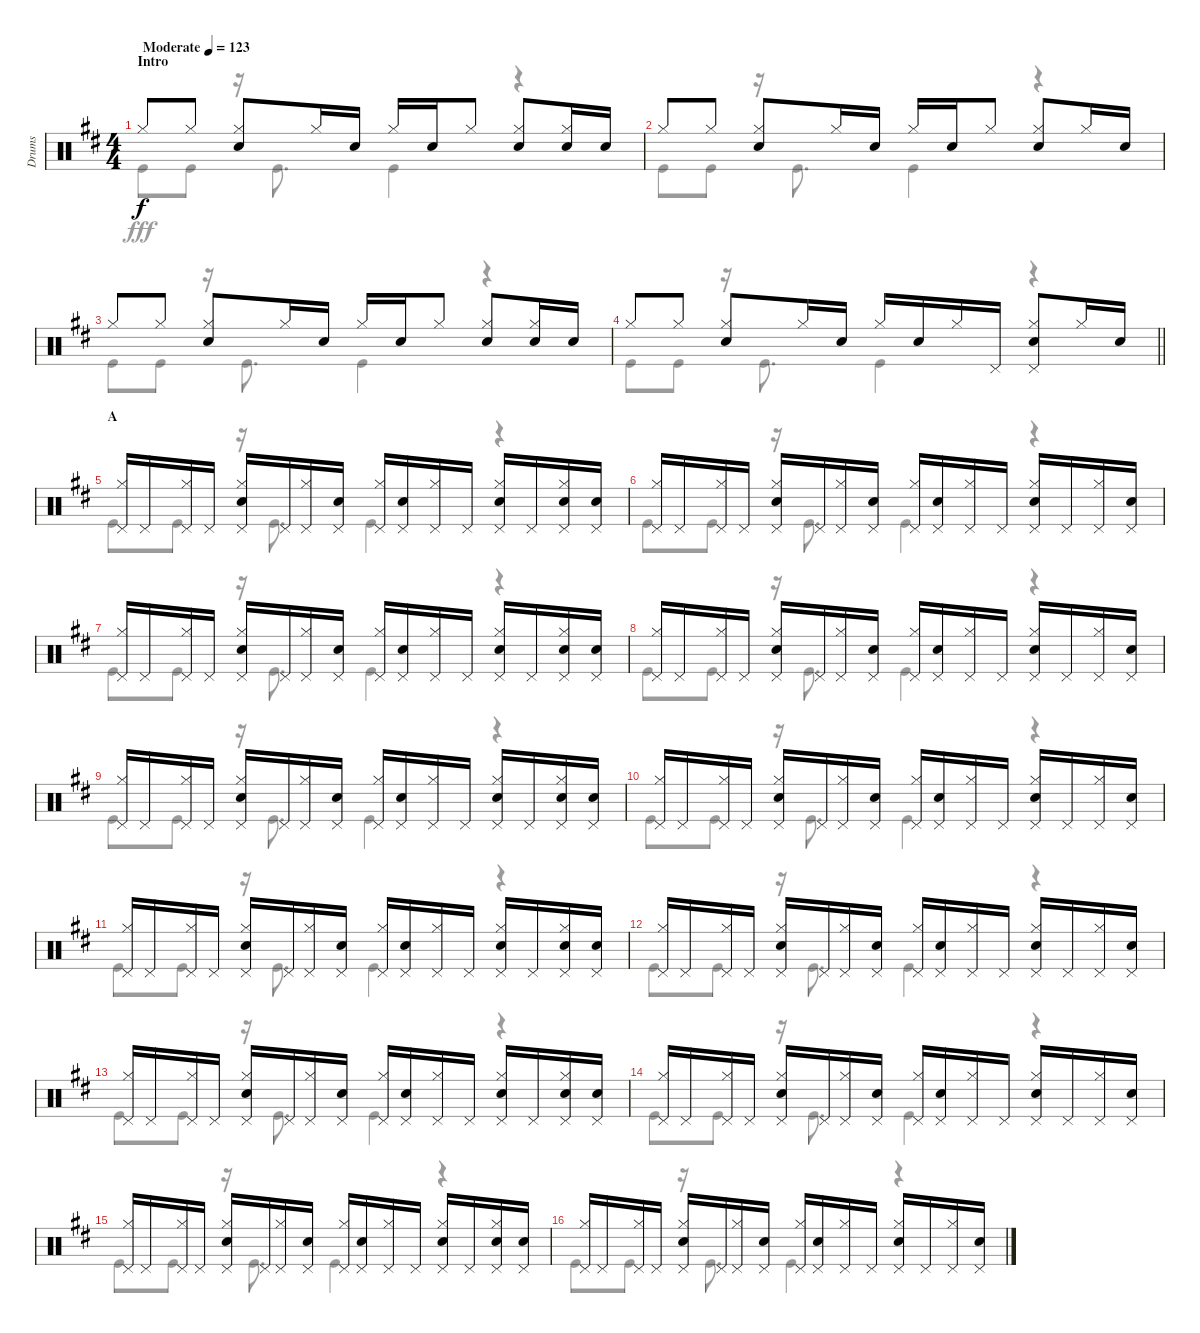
\track ("Drums" "Drums") {instrument percussion}
\staff {score}
\articulation defaults
\voice
\ts (4 4)
\section ("" "Intro")
\tempo (123 "Moderate")
\clef neutral
\ks d "Hi-Hat (closed)".8{dy f} "Hi-Hat (closed)".8
("Hi-Hat (closed)" "Snare (hit) 2").8 "Hi-Hat (closed)".16 "Snare (hit) 2".16 "Hi-Hat (closed)".16 "Snare (hit) 2".16 "Hi-Hat (closed)".8 ("Hi-Hat (closed)" "Snare (hit) 2").8 ("Hi-Hat (closed)" "Snare (hit) 2").16 "Snare (hit) 2".16 |
"Hi-Hat (closed)".8 "Hi-Hat (closed)".8 ("Hi-Hat (closed)" "Snare (hit) 2").8 "Hi-Hat (closed)".16 "Snare (hit) 2".16 "Hi-Hat (closed)".16 "Snare (hit) 2".16 "Hi-Hat (closed)".8 ("Hi-Hat (closed)" "Snare (hit) 2").8 "Hi-Hat (closed)".16 "Snare (hit) 2".16 |
"Hi-Hat (closed)".8 "Hi-Hat (closed)".8 ("Hi-Hat (closed)" "Snare (hit) 2").8 "Hi-Hat (closed)".16 "Snare (hit) 2".16 "Hi-Hat (closed)".16 "Snare (hit) 2".16 "Hi-Hat (closed)".8 ("Hi-Hat (closed)" "Snare (hit) 2").8 ("Hi-Hat (closed)" "Snare (hit) 2").16 "Snare (hit) 2".16 |
\barLineRight lightlight "Hi-Hat (closed)".8 "Hi-Hat (closed)".8
("Hi-Hat (closed)" "Snare (hit) 2").8 "Hi-Hat (closed)".16 "Snare (hit) 2".16 "Hi-Hat (closed)".16 "Snare (hit) 2".16 "Hi-Hat (closed)".16 "Pedal Hi-Hat (hit)".16 ("Hi-Hat (closed)" "Snare (hit) 2" "Pedal Hi-Hat (hit)").8 "Hi-Hat (closed)".16 "Snare (hit) 2".16 |
\section ("" "A")
("Hi-Hat (closed)" "Pedal Hi-Hat (hit)").16 "Pedal Hi-Hat (hit)".16 ("Hi-Hat (closed)" "Pedal Hi-Hat (hit)").16 "Pedal Hi-Hat (hit)".16 ("Hi-Hat (closed)" "Snare (hit) 2" "Pedal Hi-Hat (hit)").16 "Pedal Hi-Hat (hit)".16 ("Hi-Hat (closed)" "Pedal Hi-Hat (hit)").16 ("Pedal Hi-Hat (hit)" "Snare (hit) 2").16 ("Hi-Hat (closed)" "Pedal Hi-Hat (hit)").16 ("Pedal Hi-Hat (hit)" "Snare (hit) 2").16 ("Hi-Hat (closed)" "Pedal Hi-Hat (hit)").16 "Pedal Hi-Hat (hit)".16 ("Hi-Hat (closed)" "Snare (hit) 2" "Pedal Hi-Hat (hit)").16 "Pedal Hi-Hat (hit)".16 ("Hi-Hat (closed)" "Snare (hit) 2" "Pedal Hi-Hat (hit)").16 ("Pedal Hi-Hat (hit)" "Snare (hit) 2").16 |
("Hi-Hat (closed)" "Pedal Hi-Hat (hit)").16 "Pedal Hi-Hat (hit)".16 ("Hi-Hat (closed)" "Pedal Hi-Hat (hit)").16 "Pedal Hi-Hat (hit)".16 ("Hi-Hat (closed)" "Snare (hit) 2" "Pedal Hi-Hat (hit)").16 "Pedal Hi-Hat (hit)".16 ("Hi-Hat (closed)" "Pedal Hi-Hat (hit)").16 ("Pedal Hi-Hat (hit)" "Snare (hit) 2").16 ("Hi-Hat (closed)" "Pedal Hi-Hat (hit)").16 ("Pedal Hi-Hat (hit)" "Snare (hit) 2").16 ("Hi-Hat (closed)" "Pedal Hi-Hat (hit)").16 "Pedal Hi-Hat (hit)".16 ("Hi-Hat (closed)" "Snare (hit) 2" "Pedal Hi-Hat (hit)").16 "Pedal Hi-Hat (hit)".16 ("Hi-Hat (closed)" "Pedal Hi-Hat (hit)").16 ("Pedal Hi-Hat (hit)" "Snare (hit) 2").16 |
("Hi-Hat (closed)" "Pedal Hi-Hat (hit)").16 "Pedal Hi-Hat (hit)".16 ("Hi-Hat (closed)" "Pedal Hi-Hat (hit)").16 "Pedal Hi-Hat (hit)".16 ("Hi-Hat (closed)" "Snare (hit) 2" "Pedal Hi-Hat (hit)").16 "Pedal Hi-Hat (hit)".16 ("Hi-Hat (closed)" "Pedal Hi-Hat (hit)").16 ("Pedal Hi-Hat (hit)" "Snare (hit) 2").16 ("Hi-Hat (closed)" "Pedal Hi-Hat (hit)").16 ("Pedal Hi-Hat (hit)" "Snare (hit) 2").16 ("Hi-Hat (closed)" "Pedal Hi-Hat (hit)").16 "Pedal Hi-Hat (hit)".16 ("Hi-Hat (closed)" "Snare (hit) 2" "Pedal Hi-Hat (hit)").16 "Pedal Hi-Hat (hit)".16 ("Hi-Hat (closed)" "Snare (hit) 2" "Pedal Hi-Hat (hit)").16 ("Pedal Hi-Hat (hit)" "Snare (hit) 2").16 |
("Hi-Hat (closed)" "Pedal Hi-Hat (hit)").16 "Pedal Hi-Hat (hit)".16 ("Hi-Hat (closed)" "Pedal Hi-Hat (hit)").16 "Pedal Hi-Hat (hit)".16 ("Hi-Hat (closed)" "Snare (hit) 2" "Pedal Hi-Hat (hit)").16 "Pedal Hi-Hat (hit)".16 ("Hi-Hat (closed)" "Pedal Hi-Hat (hit)").16 ("Pedal Hi-Hat (hit)" "Snare (hit) 2").16 ("Hi-Hat (closed)" "Pedal Hi-Hat (hit)").16 ("Pedal Hi-Hat (hit)" "Snare (hit) 2").16 ("Hi-Hat (closed)" "Pedal Hi-Hat (hit)").16 "Pedal Hi-Hat (hit)".16 ("Hi-Hat (closed)" "Snare (hit) 2" "Pedal Hi-Hat (hit)").16 "Pedal Hi-Hat (hit)".16 ("Hi-Hat (closed)" "Pedal Hi-Hat (hit)").16 ("Pedal Hi-Hat (hit)" "Snare (hit) 2").16 |
("Hi-Hat (closed)" "Pedal Hi-Hat (hit)").16 "Pedal Hi-Hat (hit)".16 ("Hi-Hat (closed)" "Pedal Hi-Hat (hit)").16 "Pedal Hi-Hat (hit)".16 ("Hi-Hat (closed)" "Snare (hit) 2" "Pedal Hi-Hat (hit)").16 "Pedal Hi-Hat (hit)".16 ("Hi-Hat (closed)" "Pedal Hi-Hat (hit)").16 ("Pedal Hi-Hat (hit)" "Snare (hit) 2").16 ("Hi-Hat (closed)" "Pedal Hi-Hat (hit)").16 ("Pedal Hi-Hat (hit)" "Snare (hit) 2").16 ("Hi-Hat (closed)" "Pedal Hi-Hat (hit)").16 "Pedal Hi-Hat (hit)".16 ("Hi-Hat (closed)" "Snare (hit) 2" "Pedal Hi-Hat (hit)").16 "Pedal Hi-Hat (hit)".16 ("Hi-Hat (closed)" "Snare (hit) 2" "Pedal Hi-Hat (hit)").16 ("Pedal Hi-Hat (hit)" "Snare (hit) 2").16 |
("Hi-Hat (closed)" "Pedal Hi-Hat (hit)").16 "Pedal Hi-Hat (hit)".16 ("Hi-Hat (closed)" "Pedal Hi-Hat (hit)").16 "Pedal Hi-Hat (hit)".16 ("Hi-Hat (closed)" "Snare (hit) 2" "Pedal Hi-Hat (hit)").16 "Pedal Hi-Hat (hit)".16 ("Hi-Hat (closed)" "Pedal Hi-Hat (hit)").16 ("Pedal Hi-Hat (hit)" "Snare (hit) 2").16 ("Hi-Hat (closed)" "Pedal Hi-Hat (hit)").16 ("Pedal Hi-Hat (hit)" "Snare (hit) 2").16 ("Hi-Hat (closed)" "Pedal Hi-Hat (hit)").16 "Pedal Hi-Hat (hit)".16 ("Hi-Hat (closed)" "Snare (hit) 2" "Pedal Hi-Hat (hit)").16 "Pedal Hi-Hat (hit)".16 ("Hi-Hat (closed)" "Pedal Hi-Hat (hit)").16 ("Pedal Hi-Hat (hit)" "Snare (hit) 2").16 |
("Hi-Hat (closed)" "Pedal Hi-Hat (hit)").16 "Pedal Hi-Hat (hit)".16 ("Hi-Hat (closed)" "Pedal Hi-Hat (hit)").16 "Pedal Hi-Hat (hit)".16 ("Hi-Hat (closed)" "Snare (hit) 2" "Pedal Hi-Hat (hit)").16 "Pedal Hi-Hat (hit)".16 ("Hi-Hat (closed)" "Pedal Hi-Hat (hit)").16 ("Pedal Hi-Hat (hit)" "Snare (hit) 2").16 ("Hi-Hat (closed)" "Pedal Hi-Hat (hit)").16 ("Pedal Hi-Hat (hit)" "Snare (hit) 2").16 ("Hi-Hat (closed)" "Pedal Hi-Hat (hit)").16 "Pedal Hi-Hat (hit)".16 ("Hi-Hat (closed)" "Snare (hit) 2" "Pedal Hi-Hat (hit)").16 "Pedal Hi-Hat (hit)".16 ("Hi-Hat (closed)" "Snare (hit) 2" "Pedal Hi-Hat (hit)").16 ("Pedal Hi-Hat (hit)" "Snare (hit) 2").16 |
("Hi-Hat (closed)" "Pedal Hi-Hat (hit)").16 "Pedal Hi-Hat (hit)".16 ("Hi-Hat (closed)" "Pedal Hi-Hat (hit)").16 "Pedal Hi-Hat (hit)".16 ("Hi-Hat (closed)" "Snare (hit) 2" "Pedal Hi-Hat (hit)").16 "Pedal Hi-Hat (hit)".16 ("Hi-Hat (closed)" "Pedal Hi-Hat (hit)").16 ("Pedal Hi-Hat (hit)" "Snare (hit) 2").16 ("Hi-Hat (closed)" "Pedal Hi-Hat (hit)").16 ("Pedal Hi-Hat (hit)" "Snare (hit) 2").16 ("Hi-Hat (closed)" "Pedal Hi-Hat (hit)").16 "Pedal Hi-Hat (hit)".16 ("Hi-Hat (closed)" "Snare (hit) 2" "Pedal Hi-Hat (hit)").16 "Pedal Hi-Hat (hit)".16 ("Hi-Hat (closed)" "Pedal Hi-Hat (hit)").16 ("Pedal Hi-Hat (hit)" "Snare (hit) 2").16 |
("Hi-Hat (closed)" "Pedal Hi-Hat (hit)").16 "Pedal Hi-Hat (hit)".16 ("Hi-Hat (closed)" "Pedal Hi-Hat (hit)").16 "Pedal Hi-Hat (hit)".16 ("Hi-Hat (closed)" "Snare (hit) 2" "Pedal Hi-Hat (hit)").16 "Pedal Hi-Hat (hit)".16 ("Hi-Hat (closed)" "Pedal Hi-Hat (hit)").16 ("Pedal Hi-Hat (hit)" "Snare (hit) 2").16 ("Hi-Hat (closed)" "Pedal Hi-Hat (hit)").16 ("Pedal Hi-Hat (hit)" "Snare (hit) 2").16 ("Hi-Hat (closed)" "Pedal Hi-Hat (hit)").16 "Pedal Hi-Hat (hit)".16 ("Hi-Hat (closed)" "Snare (hit) 2" "Pedal Hi-Hat (hit)").16 "Pedal Hi-Hat (hit)".16 ("Hi-Hat (closed)" "Snare (hit) 2" "Pedal Hi-Hat (hit)").16 ("Pedal Hi-Hat (hit)" "Snare (hit) 2").16 |
("Hi-Hat (closed)" "Pedal Hi-Hat (hit)").16 "Pedal Hi-Hat (hit)".16 ("Hi-Hat (closed)" "Pedal Hi-Hat (hit)").16 "Pedal Hi-Hat (hit)".16 ("Hi-Hat (closed)" "Snare (hit) 2" "Pedal Hi-Hat (hit)").16 "Pedal Hi-Hat (hit)".16 ("Hi-Hat (closed)" "Pedal Hi-Hat (hit)").16 ("Pedal Hi-Hat (hit)" "Snare (hit) 2").16 ("Hi-Hat (closed)" "Pedal Hi-Hat (hit)").16 ("Pedal Hi-Hat (hit)" "Snare (hit) 2").16 ("Hi-Hat (closed)" "Pedal Hi-Hat (hit)").16 "Pedal Hi-Hat (hit)".16 ("Hi-Hat (closed)" "Snare (hit) 2" "Pedal Hi-Hat (hit)").16 "Pedal Hi-Hat (hit)".16 ("Hi-Hat (closed)" "Pedal Hi-Hat (hit)").16 ("Pedal Hi-Hat (hit)" "Snare (hit) 2").16 |
("Hi-Hat (closed)" "Pedal Hi-Hat (hit)").16 "Pedal Hi-Hat (hit)".16 ("Hi-Hat (closed)" "Pedal Hi-Hat (hit)").16 "Pedal Hi-Hat (hit)".16 ("Hi-Hat (closed)" "Snare (hit) 2" "Pedal Hi-Hat (hit)").16 "Pedal Hi-Hat (hit)".16 ("Hi-Hat (closed)" "Pedal Hi-Hat (hit)").16 ("Pedal Hi-Hat (hit)" "Snare (hit) 2").16 ("Hi-Hat (closed)" "Pedal Hi-Hat (hit)").16 ("Pedal Hi-Hat (hit)" "Snare (hit) 2").16 ("Hi-Hat (closed)" "Pedal Hi-Hat (hit)").16 "Pedal Hi-Hat (hit)".16 ("Hi-Hat (closed)" "Snare (hit) 2" "Pedal Hi-Hat (hit)").16 "Pedal Hi-Hat (hit)".16 ("Hi-Hat (closed)" "Snare (hit) 2" "Pedal Hi-Hat (hit)").16 ("Pedal Hi-Hat (hit)" "Snare (hit) 2").16 |
("Hi-Hat (closed)" "Pedal Hi-Hat (hit)").16 "Pedal Hi-Hat (hit)".16 ("Hi-Hat (closed)" "Pedal Hi-Hat (hit)").16 "Pedal Hi-Hat (hit)".16 ("Hi-Hat (closed)" "Snare (hit) 2" "Pedal Hi-Hat (hit)").16 "Pedal Hi-Hat (hit)".16 ("Hi-Hat (closed)" "Pedal Hi-Hat (hit)").16 ("Pedal Hi-Hat (hit)" "Snare (hit) 2").16 ("Hi-Hat (closed)" "Pedal Hi-Hat (hit)").16 ("Pedal Hi-Hat (hit)" "Snare (hit) 2").16 ("Hi-Hat (closed)" "Pedal Hi-Hat (hit)").16 "Pedal Hi-Hat (hit)".16 ("Hi-Hat (closed)" "Snare (hit) 2" "Pedal Hi-Hat (hit)").16 "Pedal Hi-Hat (hit)".16 ("Hi-Hat (closed)" "Pedal Hi-Hat (hit)").16 ("Pedal Hi-Hat (hit)" "Snare (hit) 2").16
\voice
\clef neutral
\ottava regular
\simile none
\ks d "Kick (hit)".8{dy fff} "Kick (hit)".8
r.16 "Kick (hit)".8{d} "Kick (hit)".4 r.4 |
"Kick (hit)".8 "Kick (hit)".8 r.16 "Kick (hit)".8{d} "Kick (hit)".4 r.4 |
"Kick (hit)".8 "Kick (hit)".8 r.16 "Kick (hit)".8{d} "Kick (hit)".4 r.4 |
\barLineRight lightlight "Kick (hit)".8 "Kick (hit)".8
r.16 "Kick (hit)".8{d} "Kick (hit)".4 r.4 |
"Kick (hit)".8 "Kick (hit)".8 r.16 "Kick (hit)".8{d} "Kick (hit)".4 r.4 |
"Kick (hit)".8 "Kick (hit)".8 r.16 "Kick (hit)".8{d} "Kick (hit)".4 r.4 |
"Kick (hit)".8 "Kick (hit)".8 r.16 "Kick (hit)".8{d} "Kick (hit)".4 r.4 |
"Kick (hit)".8 "Kick (hit)".8 r.16 "Kick (hit)".8{d} "Kick (hit)".4 r.4 |
"Kick (hit)".8 "Kick (hit)".8 r.16 "Kick (hit)".8{d} "Kick (hit)".4 r.4 |
"Kick (hit)".8 "Kick (hit)".8 r.16 "Kick (hit)".8{d} "Kick (hit)".4 r.4 |
"Kick (hit)".8 "Kick (hit)".8 r.16 "Kick (hit)".8{d} "Kick (hit)".4 r.4 |
"Kick (hit)".8 "Kick (hit)".8 r.16 "Kick (hit)".8{d} "Kick (hit)".4 r.4 |
"Kick (hit)".8 "Kick (hit)".8 r.16 "Kick (hit)".8{d} "Kick (hit)".4 r.4 |
"Kick (hit)".8 "Kick (hit)".8 r.16 "Kick (hit)".8{d} "Kick (hit)".4 r.4 |
"Kick (hit)".8 "Kick (hit)".8 r.16 "Kick (hit)".8{d} "Kick (hit)".4 r.4 |
"Kick (hit)".8 "Kick (hit)".8 r.16 "Kick (hit)".8{d} "Kick (hit)".4 r.4
